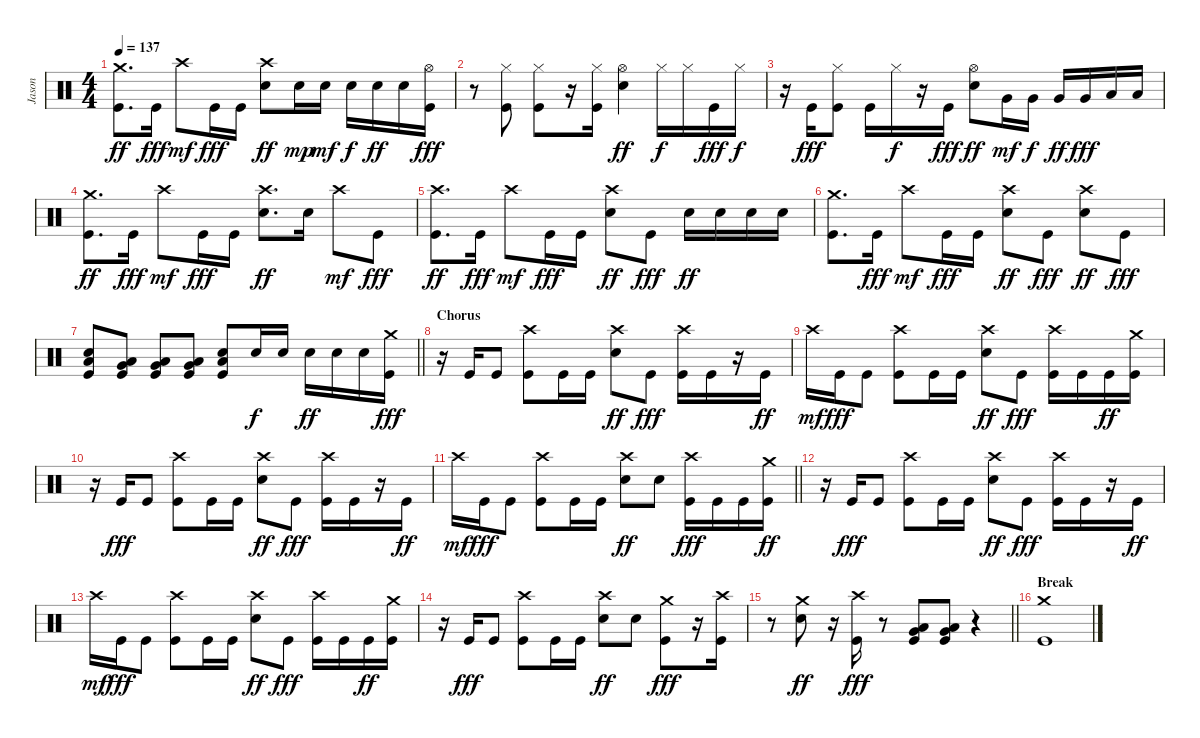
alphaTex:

\track ("Jason" "Jason") {instrument percussion}
\staff {score}
\articulation defaults
\ts (4 4)
\tempo 137
\clef neutral
\ks c
("Crash medium (hit)" "Kick (hit)").8{d dy ff} "Kick (hit)".16{dy fff} "Crash high (hit)".8{dy mf} "Kick (hit)".16{dy fff} "Kick (hit)".16 ("Crash high (hit)" "Electric Snare (hit)").8{dy ff} "Electric Snare (hit)".16{dy mp} "Electric Snare (hit)".16{dy mf} "Electric Snare (hit)".16{dy f} "Electric Snare (hit)".16{dy ff} "Electric Snare (hit)".16 ("Hi-Hat (open)" "Kick (hit)").16{dy fff} |
r.8 ("Hi-Hat (closed)" "Kick (hit)").8 ("Hi-Hat (closed)" "Kick (hit)").8 r.16 ("Hi-Hat (closed)" "Kick (hit)").16 ("Hi-Hat (open)" "Electric Snare (hit)").4{dy ff} "Hi-Hat (closed)".16{dy f} "Hi-Hat (closed)".16 "Kick (hit)".16{dy fff} "Hi-Hat (closed)".16{dy f} |
r.16 "Kick (hit)".16{dy fff} ("Hi-Hat (closed)" "Kick (hit)").8 "Kick (hit)".16 "Hi-Hat (closed)".16{dy f} r.16 "Kick (hit)".16{dy fff} ("Hi-Hat (open)" "Electric Snare (hit)").8{dy ff} "Very Low Tom (hit)".16{dy mf} "Very Low Tom (hit)".16{dy f} "Very Low Tom (hit)".16{dy ff} "Very Low Tom (hit)".16{dy fff} "Low Floor Tom (hit)".16 "Low Floor Tom (hit)".16 |
("Crash medium (hit)" "Kick (hit)").8{d dy ff} "Kick (hit)".16{dy fff} "Crash high (hit)".8{dy mf} "Kick (hit)".16{dy fff} "Kick (hit)".16 ("Crash high (hit)" "Electric Snare (hit)").8{d dy ff} "Electric Snare (hit)".16 "Crash high (hit)".8{dy mf} "Kick (hit)".8{dy fff} |
("Crash high (hit)" "Kick (hit)").8{d dy ff} "Kick (hit)".16{dy fff} "Crash high (hit)".8{dy mf} "Kick (hit)".16{dy fff} "Kick (hit)".16 ("Crash high (hit)" "Electric Snare (hit)").8{dy ff} "Kick (hit)".8{dy fff} "Electric Snare (hit)".16{dy ff} "Electric Snare (hit)".16 "Electric Snare (hit)".16 "Electric Snare (hit)".16 |
("Crash medium (hit)" "Kick (hit)").8{d} "Kick (hit)".16{dy fff} "Crash high (hit)".8{dy mf} "Kick (hit)".16{dy fff} "Kick (hit)".16 ("Crash high (hit)" "Electric Snare (hit)").8{dy ff} "Kick (hit)".8{dy fff} ("Crash high (hit)" "Electric Snare (hit)").8{dy ff} "Kick (hit)".8{dy fff} |
\barLineRight lightlight
("Low Floor Tom (hit)" "Electric Snare (hit)" "Kick (hit)").8 ("Very Low Tom (hit)" "Low Floor Tom (hit)" "Kick (hit)").8 ("Very Low Tom (hit)" "Low Floor Tom (hit)" "Kick (hit)").8 ("Very Low Tom (hit)" "Low Floor Tom (hit)" "Kick (hit)").8 ("Low Floor Tom (hit)" "Electric Snare (hit)" "Kick (hit)").8 "Electric Snare (hit)".16{dy f} "Electric Snare (hit)".16 "Electric Snare (hit)".16{dy ff} "Electric Snare (hit)".16 "Electric Snare (hit)".16 ("Crash medium (hit)" "Kick (hit)").16{dy fff} |
\section ("" "Chorus")
r.16 "Kick (hit)".16 "Kick (hit)".8 ("Crash high (hit)" "Kick (hit)").8 "Kick (hit)".16 "Kick (hit)".16 ("Crash high (hit)" "Electric Snare (hit)").8{dy ff} "Kick (hit)".8{dy fff} ("Crash high (hit)" "Kick (hit)").16 "Kick (hit)".16 r.16 "Kick (hit)".16{dy ff} |
"Crash high (hit)".16{dy mf} "Kick (hit)".16{dy fff} "Kick (hit)".8 ("Crash high (hit)" "Kick (hit)").8 "Kick (hit)".16 "Kick (hit)".16 ("Crash high (hit)" "Electric Snare (hit)").8{dy ff} "Kick (hit)".8{dy fff} ("Crash high (hit)" "Kick (hit)").16 "Kick (hit)".16 "Kick (hit)".16{dy ff} ("Crash medium (hit)" "Kick (hit)").16 |
r.16 "Kick (hit)".16{dy fff} "Kick (hit)".8 ("Crash high (hit)" "Kick (hit)").8 "Kick (hit)".16 "Kick (hit)".16 ("Crash high (hit)" "Electric Snare (hit)").8{dy ff} "Kick (hit)".8{dy fff} ("Crash high (hit)" "Kick (hit)").16 "Kick (hit)".16 r.16 "Kick (hit)".16{dy ff} |
\barLineRight lightlight "Crash high (hit)".16{dy mf} "Kick (hit)".16{dy fff} "Kick (hit)".8
("Crash high (hit)" "Kick (hit)").8 "Kick (hit)".16 "Kick (hit)".16 ("Crash high (hit)" "Electric Snare (hit)").8{dy ff} "Electric Snare (hit)".8 ("Crash high (hit)" "Kick (hit)").16{dy fff} "Kick (hit)".16 "Kick (hit)".16 ("Crash medium (hit)" "Kick (hit)").16{dy ff} |
r.16 "Kick (hit)".16{dy fff} "Kick (hit)".8 ("Crash high (hit)" "Kick (hit)").8 "Kick (hit)".16 "Kick (hit)".16 ("Crash high (hit)" "Electric Snare (hit)").8{dy ff} "Kick (hit)".8{dy fff} ("Crash high (hit)" "Kick (hit)").16 "Kick (hit)".16 r.16 "Kick (hit)".16{dy ff} |
"Crash high (hit)".16{dy mf} "Kick (hit)".16{dy fff} "Kick (hit)".8 ("Crash high (hit)" "Kick (hit)").8 "Kick (hit)".16 "Kick (hit)".16 ("Crash high (hit)" "Electric Snare (hit)").8{dy ff} "Kick (hit)".8{dy fff} ("Crash high (hit)" "Kick (hit)").16 "Kick (hit)".16 "Kick (hit)".16{dy ff} ("Crash medium (hit)" "Kick (hit)").16 |
r.16 "Kick (hit)".16{dy fff} "Kick (hit)".8 ("Crash high (hit)" "Kick (hit)").8 "Kick (hit)".16 "Kick (hit)".16 ("Crash high (hit)" "Electric Snare (hit)").8{dy ff} "Electric Snare (hit)".8 ("Crash medium (hit)" "Kick (hit)").8{dy fff} r.16 ("Crash high (hit)" "Kick (hit)").16 |
\barLineRight lightlight
r.8 ("Crash medium (hit)" "Electric Snare (hit)").8{dy ff} r.16 ("Crash high (hit)" "Kick (hit)").16{dy fff} r.8 ("Very Low Tom (hit)" "Low Floor Tom (hit)" "Kick (hit)").8 ("Very Low Tom (hit)" "Low Floor Tom (hit)" "Kick (hit)").8 r.4 |
\section ("" "Break")
("Crash medium (hit)" "Kick (hit)").1
